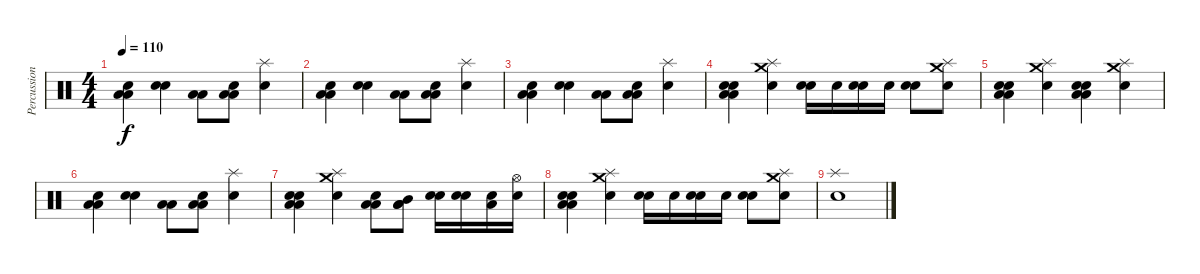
\track ("Percussions" "Percussion") {instrument percussion}
\staff {score}
\articulation defaults
\ts (4 4)
\tempo 110
\clef neutral
\ks c
("Snare (hit) 2" "Low Floor Tom (hit)" "Low Floor Tom (hit)").4{dy f} ("Snare (hit) 2" "Electric Snare (hit)").4 ("Low Floor Tom (hit)" "Low Floor Tom (hit)").8 ("Low Floor Tom (hit)" "Low Floor Tom (hit)" "Electric Snare (hit)").8 ("Snare (hit) 2" "Splash (hit)").4 |
("Snare (hit) 2" "Low Floor Tom (hit)" "Low Floor Tom (hit)").4 ("Snare (hit) 2" "Electric Snare (hit)").4 ("Low Floor Tom (hit)" "Low Floor Tom (hit)").8 ("Low Floor Tom (hit)" "Low Floor Tom (hit)" "Electric Snare (hit)").8 ("Snare (hit) 2" "Splash (hit)").4 |
("Snare (hit) 2" "Low Floor Tom (hit)" "Low Floor Tom (hit)").4 ("Snare (hit) 2" "Electric Snare (hit)").4 ("Low Floor Tom (hit)" "Low Floor Tom (hit)").8 ("Low Floor Tom (hit)" "Low Floor Tom (hit)" "Electric Snare (hit)").8 ("Snare (hit) 2" "Splash (hit)").4 |
("Snare (hit) 2" "Low Floor Tom (hit)" "Low Floor Tom (hit)" "Electric Snare (hit)").4 ("Snare (hit) 2" "Splash (hit)" "Crash medium (hit)").4 ("Snare (hit) 2" "Electric Snare (hit)").16 "Snare (hit) 2".16 ("Snare (hit) 2" "Electric Snare (hit)").16 "Snare (hit) 2".16 ("Snare (hit) 2" "Electric Snare (hit)").8 ("Snare (hit) 2" "Splash (hit)" "Crash medium (hit)").8 |
("Snare (hit) 2" "Low Floor Tom (hit)" "Low Floor Tom (hit)" "Electric Snare (hit)").4 ("Snare (hit) 2" "Splash (hit)" "Crash medium (hit)").4 ("Snare (hit) 2" "Low Floor Tom (hit)" "Low Floor Tom (hit)" "Electric Snare (hit)").4 ("Snare (hit) 2" "Splash (hit)" "Crash medium (hit)").4 |
("Snare (hit) 2" "Low Floor Tom (hit)" "Low Floor Tom (hit)").4 ("Snare (hit) 2" "Electric Snare (hit)").4 ("Low Floor Tom (hit)" "Low Floor Tom (hit)").8 ("Low Floor Tom (hit)" "Low Floor Tom (hit)" "Electric Snare (hit)").8 ("Snare (hit) 2" "Splash (hit)").4 |
("Snare (hit) 2" "Low Floor Tom (hit)" "Low Floor Tom (hit)" "Electric Snare (hit)").4 ("Snare (hit) 2" "Splash (hit)" "Crash medium (hit)").4 ("Low Floor Tom (hit)" "Low Floor Tom (hit)" "Electric Snare (hit)").8 ("Mid Tom (hit)" "Low Floor Tom (hit)" "Low Floor Tom (hit)").8 ("Snare (hit) 2" "Hand Clap (hit)").16 ("Snare (hit) 2" "Hand Clap (hit)").16 ("Snare (hit) 2" "Low Tom (hit)").16 ("Snare (hit) 2" "Hi-Hat (open)").16 |
("Snare (hit) 2" "Low Floor Tom (hit)" "Low Floor Tom (hit)" "Electric Snare (hit)").4 ("Snare (hit) 2" "Splash (hit)" "Crash medium (hit)").4 ("Snare (hit) 2" "Electric Snare (hit)").16 "Snare (hit) 2".16 ("Snare (hit) 2" "Electric Snare (hit)").16 "Snare (hit) 2".16 ("Snare (hit) 2" "Electric Snare (hit)").8 ("Snare (hit) 2" "Splash (hit)" "Crash medium (hit)").8 |
("Snare (hit) 2" "Splash (hit)").1
